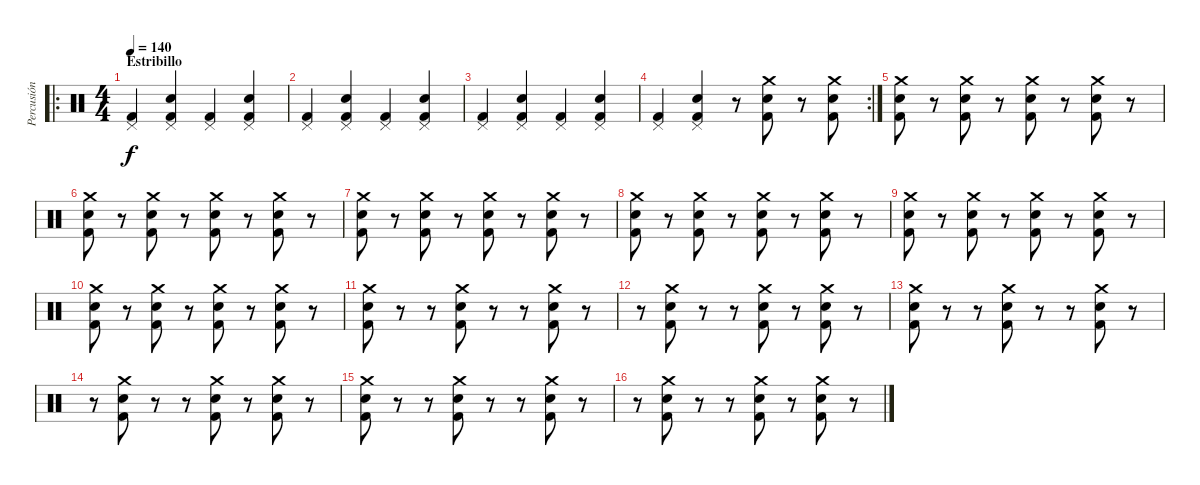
\track ("Percusión" "Percusión") {instrument percussion}
\staff {score}
\articulation defaults
\ro
\ts (4 4)
\section ("" "Estribillo")
\tempo 140
\clef neutral
\ks c
("Pedal Hi-Hat (hit)" "Kick (hit) 2").4{dy f} ("Pedal Hi-Hat (hit)" "Electric Snare (hit)" "Kick (hit) 2").4 ("Pedal Hi-Hat (hit)" "Kick (hit) 2").4 ("Pedal Hi-Hat (hit)" "Electric Snare (hit)" "Kick (hit) 2").4 |
("Pedal Hi-Hat (hit)" "Kick (hit) 2").4 ("Pedal Hi-Hat (hit)" "Electric Snare (hit)" "Kick (hit) 2").4 ("Pedal Hi-Hat (hit)" "Kick (hit) 2").4 ("Pedal Hi-Hat (hit)" "Electric Snare (hit)" "Kick (hit) 2").4 |
("Pedal Hi-Hat (hit)" "Kick (hit) 2").4 ("Pedal Hi-Hat (hit)" "Electric Snare (hit)" "Kick (hit) 2").4 ("Pedal Hi-Hat (hit)" "Kick (hit) 2").4 ("Pedal Hi-Hat (hit)" "Electric Snare (hit)" "Kick (hit) 2").4 |
\rc 2
("Pedal Hi-Hat (hit)" "Kick (hit) 2").4 ("Pedal Hi-Hat (hit)" "Electric Snare (hit)" "Kick (hit) 2").4 r.8 ("Kick (hit) 2" "Crash medium (hit)" "Electric Snare (hit)").8 r.8 ("Kick (hit) 2" "Crash medium (hit)" "Electric Snare (hit)").8 |
("Kick (hit) 2" "Crash medium (hit)" "Electric Snare (hit)").8 r.8 ("Kick (hit) 2" "Crash medium (hit)" "Electric Snare (hit)").8 r.8 ("Kick (hit) 2" "Crash medium (hit)" "Electric Snare (hit)").8 r.8 ("Kick (hit) 2" "Crash medium (hit)" "Electric Snare (hit)").8 r.8 |
("Kick (hit) 2" "Crash medium (hit)" "Electric Snare (hit)").8 r.8 ("Kick (hit) 2" "Crash medium (hit)" "Electric Snare (hit)").8 r.8 ("Kick (hit) 2" "Crash medium (hit)" "Electric Snare (hit)").8 r.8 ("Kick (hit) 2" "Crash medium (hit)" "Electric Snare (hit)").8 r.8 |
("Kick (hit) 2" "Crash medium (hit)" "Electric Snare (hit)").8 r.8 ("Kick (hit) 2" "Crash medium (hit)" "Electric Snare (hit)").8 r.8 ("Kick (hit) 2" "Crash medium (hit)" "Electric Snare (hit)").8 r.8 ("Kick (hit) 2" "Crash medium (hit)" "Electric Snare (hit)").8 r.8 |
("Kick (hit) 2" "Crash medium (hit)" "Electric Snare (hit)").8 r.8 ("Kick (hit) 2" "Crash medium (hit)" "Electric Snare (hit)").8 r.8 ("Kick (hit) 2" "Crash medium (hit)" "Electric Snare (hit)").8 r.8 ("Kick (hit) 2" "Crash medium (hit)" "Electric Snare (hit)").8 r.8 |
("Kick (hit) 2" "Crash medium (hit)" "Electric Snare (hit)").8 r.8 ("Kick (hit) 2" "Crash medium (hit)" "Electric Snare (hit)").8 r.8 ("Kick (hit) 2" "Crash medium (hit)" "Electric Snare (hit)").8 r.8 ("Kick (hit) 2" "Crash medium (hit)" "Electric Snare (hit)").8 r.8 |
("Kick (hit) 2" "Crash medium (hit)" "Electric Snare (hit)").8 r.8 ("Kick (hit) 2" "Crash medium (hit)" "Electric Snare (hit)").8 r.8 ("Kick (hit) 2" "Crash medium (hit)" "Electric Snare (hit)").8 r.8 ("Kick (hit) 2" "Crash medium (hit)" "Electric Snare (hit)").8 r.8 |
("Kick (hit) 2" "Crash medium (hit)" "Electric Snare (hit)").8 r.8 r.8 ("Kick (hit) 2" "Crash medium (hit)" "Electric Snare (hit)").8 r.8 r.8 ("Kick (hit) 2" "Crash medium (hit)" "Electric Snare (hit)").8 r.8 |
r.8 ("Kick (hit) 2" "Crash medium (hit)" "Electric Snare (hit)").8 r.8 r.8 ("Kick (hit) 2" "Crash medium (hit)" "Electric Snare (hit)").8 r.8 ("Kick (hit) 2" "Crash medium (hit)" "Electric Snare (hit)").8 r.8 |
("Kick (hit) 2" "Crash medium (hit)" "Electric Snare (hit)").8 r.8 r.8 ("Kick (hit) 2" "Crash medium (hit)" "Electric Snare (hit)").8 r.8 r.8 ("Kick (hit) 2" "Crash medium (hit)" "Electric Snare (hit)").8 r.8 |
r.8 ("Kick (hit) 2" "Crash medium (hit)" "Electric Snare (hit)").8 r.8 r.8 ("Kick (hit) 2" "Crash medium (hit)" "Electric Snare (hit)").8 r.8 ("Kick (hit) 2" "Crash medium (hit)" "Electric Snare (hit)").8 r.8 |
("Kick (hit) 2" "Crash medium (hit)" "Electric Snare (hit)").8 r.8 r.8 ("Kick (hit) 2" "Crash medium (hit)" "Electric Snare (hit)").8 r.8 r.8 ("Kick (hit) 2" "Crash medium (hit)" "Electric Snare (hit)").8 r.8 |
r.8 ("Kick (hit) 2" "Crash medium (hit)" "Electric Snare (hit)").8 r.8 r.8 ("Kick (hit) 2" "Crash medium (hit)" "Electric Snare (hit)").8 r.8 ("Kick (hit) 2" "Crash medium (hit)" "Electric Snare (hit)").8 r.8
